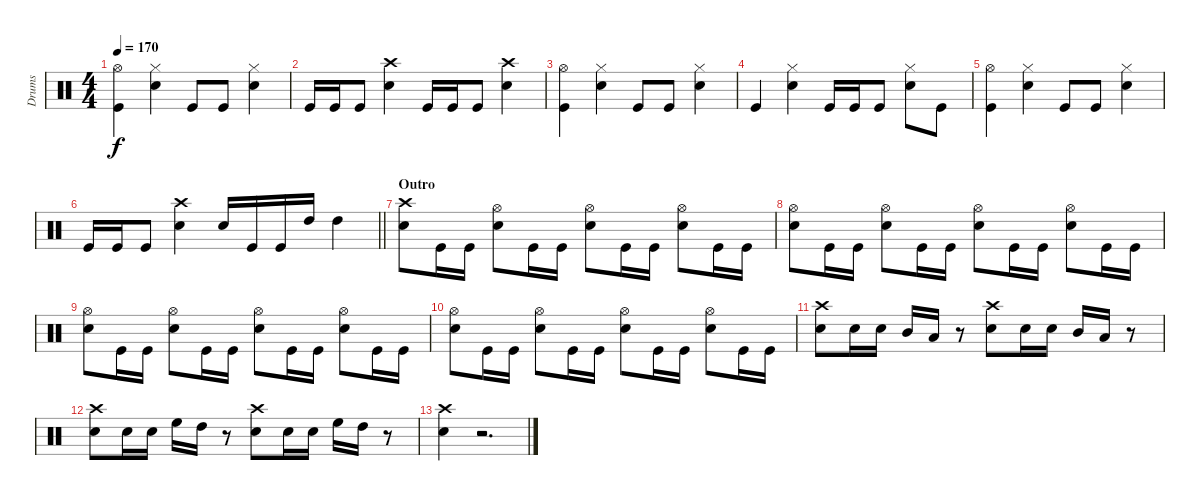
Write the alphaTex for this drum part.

\track ("Drums" "Drums") {instrument percussion}
\staff {score}
\articulation defaults
\ts (4 4)
\tempo 170
\clef neutral
\ks c
("Hi-Hat (open)" "Kick (hit)").4{dy f} ("Hi-Hat (closed)" "Snare (hit) 2").4 "Kick (hit)".8 "Kick (hit)".8 ("Hi-Hat (closed)" "Snare (hit) 2").4 |
"Kick (hit)".16 "Kick (hit)".16 "Kick (hit)".8 ("Crash high (hit)" "Snare (hit) 2").4 "Kick (hit)".16 "Kick (hit)".16 "Kick (hit)".8 ("Crash high (hit)" "Snare (hit) 2").4 |
("Hi-Hat (open)" "Kick (hit)").4 ("Hi-Hat (closed)" "Snare (hit) 2").4 "Kick (hit)".8 "Kick (hit)".8 ("Hi-Hat (closed)" "Snare (hit) 2").4 |
"Kick (hit)".4 ("Hi-Hat (closed)" "Snare (hit) 2").4 "Kick (hit)".16 "Kick (hit)".16 "Kick (hit)".8 ("Hi-Hat (closed)" "Snare (hit) 2").8 "Kick (hit)".8 |
("Hi-Hat (open)" "Kick (hit)").4 ("Hi-Hat (closed)" "Snare (hit) 2").4 "Kick (hit)".8 "Kick (hit)".8 ("Hi-Hat (closed)" "Snare (hit) 2").4 |
\barLineRight lightlight "Kick (hit)".16 "Kick (hit)".16 "Kick (hit)".8
("Crash high (hit)" "Snare (hit) 2").4 "Snare (hit) 2".16 "Kick (hit)".16 "Kick (hit)".16 "High Tom (hit)".16 "High Tom (hit)".4 |
\section ("" "Outro")
("Crash high (hit)" "Snare (hit) 2").8 "Kick (hit)".16 "Kick (hit)".16 ("Hi-Hat (open)" "Snare (hit) 2").8 "Kick (hit)".16 "Kick (hit)".16 ("Hi-Hat (open)" "Snare (hit) 2").8 "Kick (hit)".16 "Kick (hit)".16 ("Hi-Hat (open)" "Snare (hit) 2").8 "Kick (hit)".16 "Kick (hit)".16 |
("Hi-Hat (open)" "Snare (hit) 2").8 "Kick (hit)".16 "Kick (hit)".16 ("Hi-Hat (open)" "Snare (hit) 2").8 "Kick (hit)".16 "Kick (hit)".16 ("Hi-Hat (open)" "Snare (hit) 2").8 "Kick (hit)".16 "Kick (hit)".16 ("Hi-Hat (open)" "Snare (hit) 2").8 "Kick (hit)".16 "Kick (hit)".16 |
("Hi-Hat (open)" "Snare (hit) 2").8 "Kick (hit)".16 "Kick (hit)".16 ("Hi-Hat (open)" "Snare (hit) 2").8 "Kick (hit)".16 "Kick (hit)".16 ("Hi-Hat (open)" "Snare (hit) 2").8 "Kick (hit)".16 "Kick (hit)".16 ("Hi-Hat (open)" "Snare (hit) 2").8 "Kick (hit)".16 "Kick (hit)".16 |
("Hi-Hat (open)" "Snare (hit) 2").8 "Kick (hit)".16 "Kick (hit)".16 ("Hi-Hat (open)" "Snare (hit) 2").8 "Kick (hit)".16 "Kick (hit)".16 ("Hi-Hat (open)" "Snare (hit) 2").8 "Kick (hit)".16 "Kick (hit)".16 ("Hi-Hat (open)" "Snare (hit) 2").8 "Kick (hit)".16 "Kick (hit)".16 |
("Crash high (hit)" "Snare (hit) 2").8 "Snare (hit) 2".16 "Snare (hit) 2".16 "Mid Tom (hit)".16 "Low Tom (hit)".16 r.8 ("Crash high (hit)" "Snare (hit) 2").8 "Snare (hit) 2".16 "Snare (hit) 2".16 "Mid Tom (hit)".16 "Low Tom (hit)".16 r.8 |
("Crash high (hit)" "Snare (hit) 2").8 "Snare (hit) 2".16 "Snare (hit) 2".16 "High Floor Tom (hit)".16 "High Tom (hit)".16 r.8 ("Crash high (hit)" "Snare (hit) 2").8 "Snare (hit) 2".16 "Snare (hit) 2".16 "High Floor Tom (hit)".16 "High Tom (hit)".16 r.8 |
("Crash high (hit)" "Snare (hit) 2").4 r.2{d}
